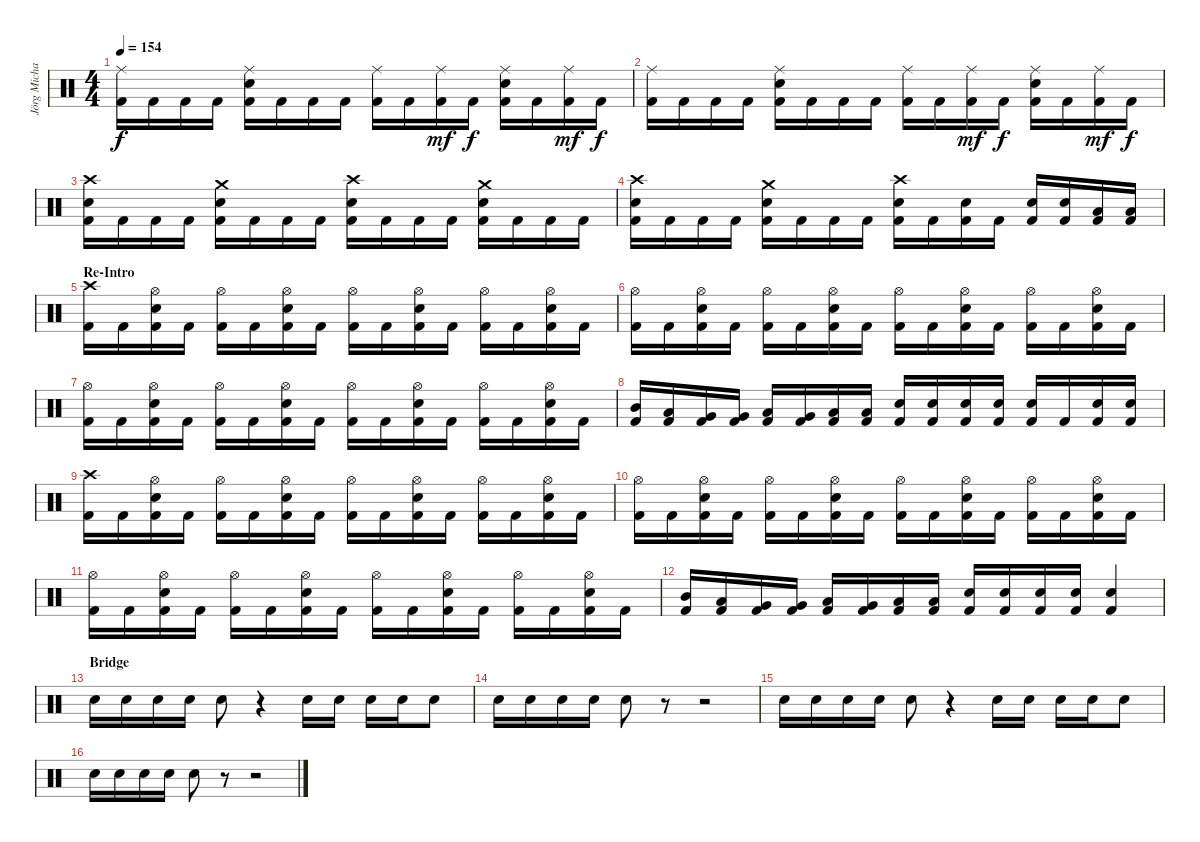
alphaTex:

\track ("Jörg Michael - Drums" "Jörg Micha") {instrument percussion}
\staff {score}
\articulation defaults
\ts (4 4)
\tempo 154
\clef neutral
\ks c
("Ride (middle)" "Kick (hit) 2").16{dy f} "Kick (hit) 2".16 "Kick (hit) 2".16 "Kick (hit) 2".16 ("Ride (middle)" "Electric Snare (hit)" "Kick (hit) 2").16 "Kick (hit) 2".16 "Kick (hit) 2".16 "Kick (hit) 2".16 ("Ride (middle)" "Kick (hit) 2").16 "Kick (hit) 2".16 ("Ride (middle)" "Kick (hit) 2").16{dy mf} "Kick (hit) 2".16{dy f} ("Ride (middle)" "Electric Snare (hit)" "Kick (hit) 2").16 "Kick (hit) 2".16 ("Ride (middle)" "Kick (hit) 2").16{dy mf} "Kick (hit) 2".16{dy f} |
("Ride (middle)" "Kick (hit) 2").16 "Kick (hit) 2".16 "Kick (hit) 2".16 "Kick (hit) 2".16 ("Ride (middle)" "Electric Snare (hit)" "Kick (hit) 2").16 "Kick (hit) 2".16 "Kick (hit) 2".16 "Kick (hit) 2".16 ("Ride (middle)" "Kick (hit) 2").16 "Kick (hit) 2".16 ("Ride (middle)" "Kick (hit) 2").16{dy mf} "Kick (hit) 2".16{dy f} ("Ride (middle)" "Electric Snare (hit)" "Kick (hit) 2").16 "Kick (hit) 2".16 ("Ride (middle)" "Kick (hit) 2").16{dy mf} "Kick (hit) 2".16{dy f} |
("Crash high (hit)" "Electric Snare (hit)" "Kick (hit) 2").16 "Kick (hit) 2".16 "Kick (hit) 2".16 "Kick (hit) 2".16 ("Crash medium (hit)" "Electric Snare (hit)" "Kick (hit) 2").16 "Kick (hit) 2".16 "Kick (hit) 2".16 "Kick (hit) 2".16 ("Crash high (hit)" "Electric Snare (hit)" "Kick (hit) 2").16 "Kick (hit) 2".16 "Kick (hit) 2".16 "Kick (hit) 2".16 ("Crash medium (hit)" "Electric Snare (hit)" "Kick (hit) 2").16 "Kick (hit) 2".16 "Kick (hit) 2".16 "Kick (hit) 2".16 |
("Crash high (hit)" "Electric Snare (hit)" "Kick (hit) 2").16 "Kick (hit) 2".16 "Kick (hit) 2".16 "Kick (hit) 2".16 ("Crash medium (hit)" "Electric Snare (hit)" "Kick (hit) 2").16 "Kick (hit) 2".16 "Kick (hit) 2".16 "Kick (hit) 2".16 ("Crash high (hit)" "Electric Snare (hit)" "Kick (hit) 2").16 "Kick (hit) 2".16 ("Electric Snare (hit)" "Kick (hit) 2").16 "Kick (hit) 2".16 ("Electric Snare (hit)" "Kick (hit) 2").16 ("Electric Snare (hit)" "Kick (hit) 2").16 ("Low Tom (hit)" "Kick (hit) 2").16 ("Low Tom (hit)" "Kick (hit) 2").16 |
\section ("" "Re-Intro")
("Crash high (hit)" "Kick (hit) 2").16 "Kick (hit) 2".16 ("Hi-Hat (open)" "Electric Snare (hit)" "Kick (hit) 2").16 "Kick (hit) 2".16 ("Hi-Hat (open)" "Kick (hit) 2").16 "Kick (hit) 2".16 ("Hi-Hat (open)" "Electric Snare (hit)" "Kick (hit) 2").16 "Kick (hit) 2".16 ("Hi-Hat (open)" "Kick (hit) 2").16 "Kick (hit) 2".16 ("Hi-Hat (open)" "Electric Snare (hit)" "Kick (hit) 2").16 "Kick (hit) 2".16 ("Hi-Hat (open)" "Kick (hit) 2").16 "Kick (hit) 2".16 ("Hi-Hat (open)" "Electric Snare (hit)" "Kick (hit) 2").16 "Kick (hit) 2".16 |
("Hi-Hat (open)" "Kick (hit) 2").16 "Kick (hit) 2".16 ("Hi-Hat (open)" "Electric Snare (hit)" "Kick (hit) 2").16 "Kick (hit) 2".16 ("Hi-Hat (open)" "Kick (hit) 2").16 "Kick (hit) 2".16 ("Hi-Hat (open)" "Electric Snare (hit)" "Kick (hit) 2").16 "Kick (hit) 2".16 ("Hi-Hat (open)" "Kick (hit) 2").16 "Kick (hit) 2".16 ("Hi-Hat (open)" "Electric Snare (hit)" "Kick (hit) 2").16 "Kick (hit) 2".16 ("Hi-Hat (open)" "Kick (hit) 2").16 "Kick (hit) 2".16 ("Hi-Hat (open)" "Electric Snare (hit)" "Kick (hit) 2").16 "Kick (hit) 2".16 |
("Hi-Hat (open)" "Kick (hit) 2").16 "Kick (hit) 2".16 ("Hi-Hat (open)" "Electric Snare (hit)" "Kick (hit) 2").16 "Kick (hit) 2".16 ("Hi-Hat (open)" "Kick (hit) 2").16 "Kick (hit) 2".16 ("Hi-Hat (open)" "Electric Snare (hit)" "Kick (hit) 2").16 "Kick (hit) 2".16 ("Hi-Hat (open)" "Kick (hit) 2").16 "Kick (hit) 2".16 ("Hi-Hat (open)" "Electric Snare (hit)" "Kick (hit) 2").16 "Kick (hit) 2".16 ("Hi-Hat (open)" "Kick (hit) 2").16 "Kick (hit) 2".16 ("Hi-Hat (open)" "Electric Snare (hit)" "Kick (hit) 2").16 "Kick (hit) 2".16 |
("Mid Tom (hit)" "Kick (hit) 2").16 ("Low Tom (hit)" "Kick (hit) 2").16 ("Very Low Tom (hit)" "Kick (hit) 2").16 ("Very Low Tom (hit)" "Kick (hit) 2").16 ("Low Tom (hit)" "Kick (hit) 2").16 ("Very Low Tom (hit)" "Kick (hit) 2").16 ("Low Floor Tom (hit)" "Kick (hit) 2").16 ("Low Floor Tom (hit)" "Kick (hit) 2").16 ("Electric Snare (hit)" "Kick (hit) 2").16 ("Electric Snare (hit)" "Kick (hit) 2").16 ("Electric Snare (hit)" "Kick (hit) 2").16 ("Electric Snare (hit)" "Kick (hit) 2").16 ("Electric Snare (hit)" "Kick (hit) 2").16 "Kick (hit) 2".16 ("Electric Snare (hit)" "Kick (hit) 2").16 ("Electric Snare (hit)" "Kick (hit) 2").16 |
("Crash high (hit)" "Kick (hit) 2").16 "Kick (hit) 2".16 ("Hi-Hat (open)" "Electric Snare (hit)" "Kick (hit) 2").16 "Kick (hit) 2".16 ("Hi-Hat (open)" "Kick (hit) 2").16 "Kick (hit) 2".16 ("Hi-Hat (open)" "Electric Snare (hit)" "Kick (hit) 2").16 "Kick (hit) 2".16 ("Hi-Hat (open)" "Kick (hit) 2").16 "Kick (hit) 2".16 ("Hi-Hat (open)" "Electric Snare (hit)" "Kick (hit) 2").16 "Kick (hit) 2".16 ("Hi-Hat (open)" "Kick (hit) 2").16 "Kick (hit) 2".16 ("Hi-Hat (open)" "Electric Snare (hit)" "Kick (hit) 2").16 "Kick (hit) 2".16 |
("Hi-Hat (open)" "Kick (hit) 2").16 "Kick (hit) 2".16 ("Hi-Hat (open)" "Electric Snare (hit)" "Kick (hit) 2").16 "Kick (hit) 2".16 ("Hi-Hat (open)" "Kick (hit) 2").16 "Kick (hit) 2".16 ("Hi-Hat (open)" "Electric Snare (hit)" "Kick (hit) 2").16 "Kick (hit) 2".16 ("Hi-Hat (open)" "Kick (hit) 2").16 "Kick (hit) 2".16 ("Hi-Hat (open)" "Electric Snare (hit)" "Kick (hit) 2").16 "Kick (hit) 2".16 ("Hi-Hat (open)" "Kick (hit) 2").16 "Kick (hit) 2".16 ("Hi-Hat (open)" "Electric Snare (hit)" "Kick (hit) 2").16 "Kick (hit) 2".16 |
("Hi-Hat (open)" "Kick (hit) 2").16 "Kick (hit) 2".16 ("Hi-Hat (open)" "Electric Snare (hit)" "Kick (hit) 2").16 "Kick (hit) 2".16 ("Hi-Hat (open)" "Kick (hit) 2").16 "Kick (hit) 2".16 ("Hi-Hat (open)" "Electric Snare (hit)" "Kick (hit) 2").16 "Kick (hit) 2".16 ("Hi-Hat (open)" "Kick (hit) 2").16 "Kick (hit) 2".16 ("Hi-Hat (open)" "Electric Snare (hit)" "Kick (hit) 2").16 "Kick (hit) 2".16 ("Hi-Hat (open)" "Kick (hit) 2").16 "Kick (hit) 2".16 ("Hi-Hat (open)" "Electric Snare (hit)" "Kick (hit) 2").16 "Kick (hit) 2".16 |
("Mid Tom (hit)" "Kick (hit) 2").16 ("Low Tom (hit)" "Kick (hit) 2").16 ("Very Low Tom (hit)" "Kick (hit) 2").16 ("Very Low Tom (hit)" "Kick (hit) 2").16 ("Low Tom (hit)" "Kick (hit) 2").16 ("Very Low Tom (hit)" "Kick (hit) 2").16 ("Low Floor Tom (hit)" "Kick (hit) 2").16 ("Low Floor Tom (hit)" "Kick (hit) 2").16 ("Electric Snare (hit)" "Kick (hit) 2").16 ("Electric Snare (hit)" "Kick (hit) 2").16 ("Electric Snare (hit)" "Kick (hit) 2").16 ("Electric Snare (hit)" "Kick (hit) 2").16 ("Electric Snare (hit)" "Kick (hit) 2").4 |
\section ("" "Bridge")
"Electric Snare (hit)".16 "Electric Snare (hit)".16 "Electric Snare (hit)".16 "Electric Snare (hit)".16 "Electric Snare (hit)".8 r.4 "Electric Snare (hit)".16 "Electric Snare (hit)".16 "Electric Snare (hit)".16 "Electric Snare (hit)".16 "Electric Snare (hit)".8 |
"Electric Snare (hit)".16 "Electric Snare (hit)".16 "Electric Snare (hit)".16 "Electric Snare (hit)".16 "Electric Snare (hit)".8 r.8 r.2 |
"Electric Snare (hit)".16 "Electric Snare (hit)".16 "Electric Snare (hit)".16 "Electric Snare (hit)".16 "Electric Snare (hit)".8 r.4 "Electric Snare (hit)".16 "Electric Snare (hit)".16 "Electric Snare (hit)".16 "Electric Snare (hit)".16 "Electric Snare (hit)".8 |
"Electric Snare (hit)".16 "Electric Snare (hit)".16 "Electric Snare (hit)".16 "Electric Snare (hit)".16 "Electric Snare (hit)".8 r.8 r.2
